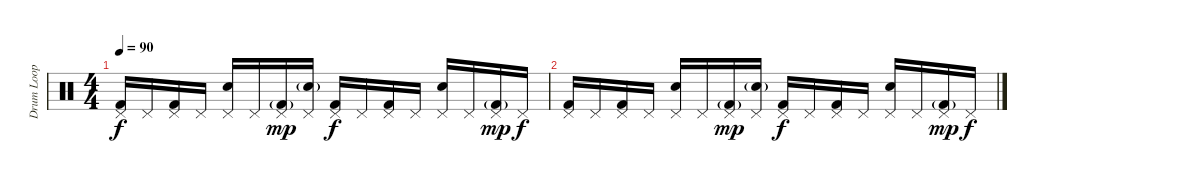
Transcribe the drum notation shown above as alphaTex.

\track ("Drum Loop" "Drum Loop") {instrument percussion}
\staff {score}
\articulation defaults
\ts (4 4)
\tempo 90
\clef neutral
\ks c
("Pedal Hi-Hat (hit)" "Kick (hit) 2").16{dy f volume 0} "Pedal Hi-Hat (hit)".16 ("Pedal Hi-Hat (hit)" "Kick (hit) 2").16 "Pedal Hi-Hat (hit)".16 ("Pedal Hi-Hat (hit)" "Snare (hit) 2").16 "Pedal Hi-Hat (hit)".16 ("Pedal Hi-Hat (hit)" "Kick (hit) 2"{g}).16{dy mp} ("Pedal Hi-Hat (hit)" "Snare (hit) 2"{g}).16 ("Pedal Hi-Hat (hit)" "Kick (hit) 2").16{dy f} "Pedal Hi-Hat (hit)".16 ("Pedal Hi-Hat (hit)" "Kick (hit) 2").16 "Pedal Hi-Hat (hit)".16 ("Pedal Hi-Hat (hit)" "Snare (hit) 2").16 "Pedal Hi-Hat (hit)".16 ("Pedal Hi-Hat (hit)" "Kick (hit) 2"{g}).16{dy mp} "Pedal Hi-Hat (hit)".16{dy f} |
("Pedal Hi-Hat (hit)" "Kick (hit) 2").16 "Pedal Hi-Hat (hit)".16 ("Pedal Hi-Hat (hit)" "Kick (hit) 2").16 "Pedal Hi-Hat (hit)".16 ("Pedal Hi-Hat (hit)" "Snare (hit) 2").16 "Pedal Hi-Hat (hit)".16 ("Pedal Hi-Hat (hit)" "Kick (hit) 2"{g}).16{dy mp} ("Pedal Hi-Hat (hit)" "Snare (hit) 2"{g}).16 ("Pedal Hi-Hat (hit)" "Kick (hit) 2").16{dy f} "Pedal Hi-Hat (hit)".16 ("Pedal Hi-Hat (hit)" "Kick (hit) 2").16 "Pedal Hi-Hat (hit)".16 ("Pedal Hi-Hat (hit)" "Snare (hit) 2").16 "Pedal Hi-Hat (hit)".16 ("Pedal Hi-Hat (hit)" "Kick (hit) 2"{g}).16{dy mp} "Pedal Hi-Hat (hit)".16{dy f}
